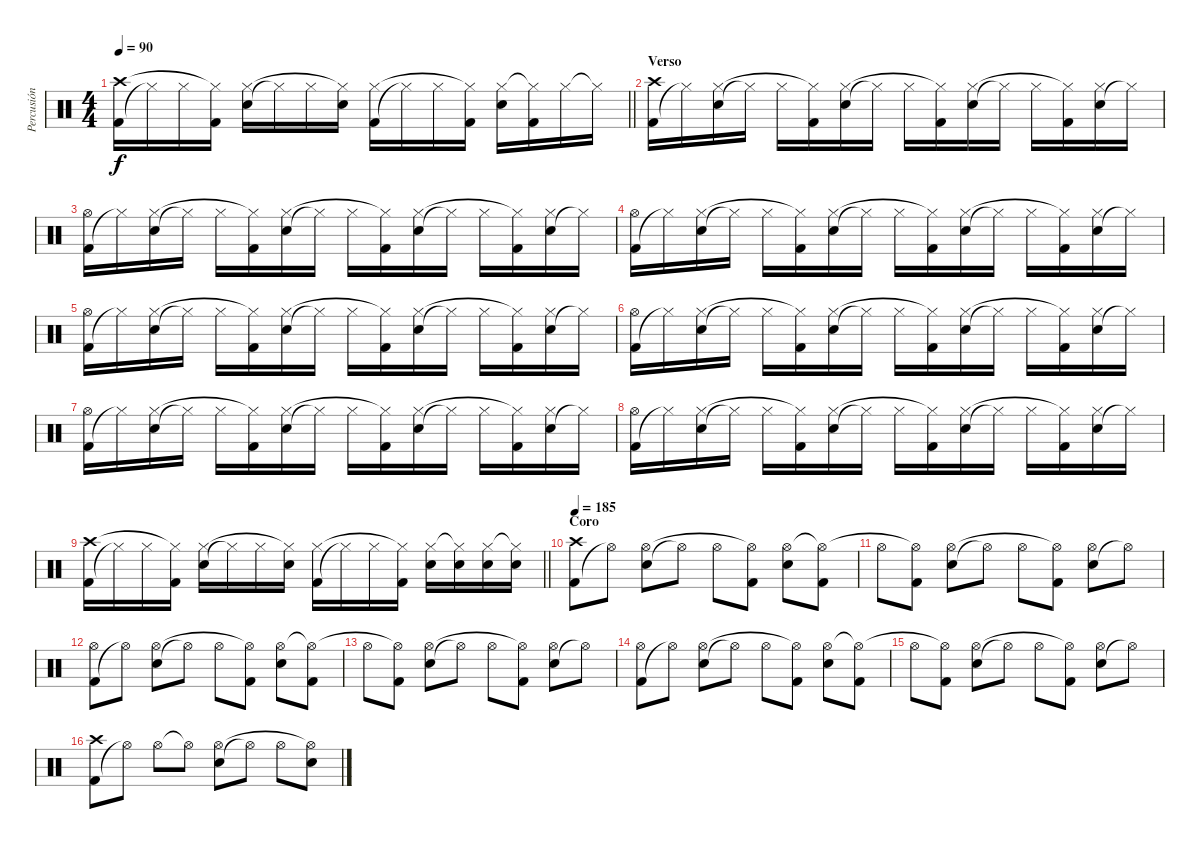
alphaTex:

\track ("Percusión" "Percusión") {instrument percussion}
\staff {score}
\articulation defaults
\ts (4 4)
\tempo 90
\clef neutral
\barLineRight lightlight
\ks c
("Kick (hit) 2" "Crash high (hit)").16{dy f} "Hi-Hat (closed)"{t}.16 "Hi-Hat (closed)".16 ("Kick (hit) 2" "Hi-Hat (closed)"{t}).16 ("Snare (hit) 2" "Hi-Hat (closed)").16 "Hi-Hat (closed)"{t}.16 "Hi-Hat (closed)".16 ("Snare (hit) 2" "Hi-Hat (closed)"{t}).16 ("Kick (hit) 2" "Hi-Hat (closed)").16 "Hi-Hat (closed)"{t}.16 "Hi-Hat (closed)".16 ("Kick (hit) 2" "Hi-Hat (closed)"{t}).16 ("Snare (hit) 2" "Hi-Hat (closed)").16 ("Kick (hit) 2" "Hi-Hat (closed)"{t}).16 "Hi-Hat (closed)".16 "Hi-Hat (closed)"{t}.16 |
\section ("" "Verso")
("Kick (hit) 2" "Crash high (hit)").16 "Hi-Hat (closed)"{t}.16 ("Snare (hit) 2" "Hi-Hat (closed)").16 "Hi-Hat (closed)"{t}.16 "Hi-Hat (closed)".16 ("Kick (hit) 2" "Hi-Hat (closed)"{t}).16 ("Snare (hit) 2" "Hi-Hat (closed)").16 "Hi-Hat (closed)"{t}.16 "Hi-Hat (closed)".16 ("Kick (hit) 2" "Hi-Hat (closed)"{t}).16 ("Snare (hit) 2" "Hi-Hat (closed)").16 "Hi-Hat (closed)"{t}.16 "Hi-Hat (closed)".16 ("Kick (hit) 2" "Hi-Hat (closed)"{t}).16 ("Snare (hit) 2" "Hi-Hat (closed)").16 "Hi-Hat (closed)"{t}.16 |
("Kick (hit) 2" "Hi-Hat (open)").16 "Hi-Hat (closed)"{t}.16 ("Snare (hit) 2" "Hi-Hat (closed)").16 "Hi-Hat (closed)"{t}.16 "Hi-Hat (closed)".16 ("Kick (hit) 2" "Hi-Hat (closed)"{t}).16 ("Snare (hit) 2" "Hi-Hat (closed)").16 "Hi-Hat (closed)"{t}.16 "Hi-Hat (closed)".16 ("Kick (hit) 2" "Hi-Hat (closed)"{t}).16 ("Snare (hit) 2" "Hi-Hat (closed)").16 "Hi-Hat (closed)"{t}.16 "Hi-Hat (closed)".16 ("Kick (hit) 2" "Hi-Hat (closed)"{t}).16 ("Snare (hit) 2" "Hi-Hat (closed)").16 "Hi-Hat (closed)"{t}.16 |
("Kick (hit) 2" "Hi-Hat (open)").16 "Hi-Hat (closed)"{t}.16 ("Snare (hit) 2" "Hi-Hat (closed)").16 "Hi-Hat (closed)"{t}.16 "Hi-Hat (closed)".16 ("Kick (hit) 2" "Hi-Hat (closed)"{t}).16 ("Snare (hit) 2" "Hi-Hat (closed)").16 "Hi-Hat (closed)"{t}.16 "Hi-Hat (closed)".16 ("Kick (hit) 2" "Hi-Hat (closed)"{t}).16 ("Snare (hit) 2" "Hi-Hat (closed)").16 "Hi-Hat (closed)"{t}.16 "Hi-Hat (closed)".16 ("Kick (hit) 2" "Hi-Hat (closed)"{t}).16 ("Snare (hit) 2" "Hi-Hat (closed)").16 "Hi-Hat (closed)"{t}.16 |
("Kick (hit) 2" "Hi-Hat (open)").16 "Hi-Hat (closed)"{t}.16 ("Snare (hit) 2" "Hi-Hat (closed)").16 "Hi-Hat (closed)"{t}.16 "Hi-Hat (closed)".16 ("Kick (hit) 2" "Hi-Hat (closed)"{t}).16 ("Snare (hit) 2" "Hi-Hat (closed)").16 "Hi-Hat (closed)"{t}.16 "Hi-Hat (closed)".16 ("Kick (hit) 2" "Hi-Hat (closed)"{t}).16 ("Snare (hit) 2" "Hi-Hat (closed)").16 "Hi-Hat (closed)"{t}.16 "Hi-Hat (closed)".16 ("Kick (hit) 2" "Hi-Hat (closed)"{t}).16 ("Snare (hit) 2" "Hi-Hat (closed)").16 "Hi-Hat (closed)"{t}.16 |
("Kick (hit) 2" "Hi-Hat (open)").16 "Hi-Hat (closed)"{t}.16 ("Snare (hit) 2" "Hi-Hat (closed)").16 "Hi-Hat (closed)"{t}.16 "Hi-Hat (closed)".16 ("Kick (hit) 2" "Hi-Hat (closed)"{t}).16 ("Snare (hit) 2" "Hi-Hat (closed)").16 "Hi-Hat (closed)"{t}.16 "Hi-Hat (closed)".16 ("Kick (hit) 2" "Hi-Hat (closed)"{t}).16 ("Snare (hit) 2" "Hi-Hat (closed)").16 "Hi-Hat (closed)"{t}.16 "Hi-Hat (closed)".16 ("Kick (hit) 2" "Hi-Hat (closed)"{t}).16 ("Snare (hit) 2" "Hi-Hat (closed)").16 "Hi-Hat (closed)"{t}.16 |
("Kick (hit) 2" "Hi-Hat (open)").16 "Hi-Hat (closed)"{t}.16 ("Snare (hit) 2" "Hi-Hat (closed)").16 "Hi-Hat (closed)"{t}.16 "Hi-Hat (closed)".16 ("Kick (hit) 2" "Hi-Hat (closed)"{t}).16 ("Snare (hit) 2" "Hi-Hat (closed)").16 "Hi-Hat (closed)"{t}.16 "Hi-Hat (closed)".16 ("Kick (hit) 2" "Hi-Hat (closed)"{t}).16 ("Snare (hit) 2" "Hi-Hat (closed)").16 "Hi-Hat (closed)"{t}.16 "Hi-Hat (closed)".16 ("Kick (hit) 2" "Hi-Hat (closed)"{t}).16 ("Snare (hit) 2" "Hi-Hat (closed)").16 "Hi-Hat (closed)"{t}.16 |
("Kick (hit) 2" "Hi-Hat (open)").16 "Hi-Hat (closed)"{t}.16 ("Snare (hit) 2" "Hi-Hat (closed)").16 "Hi-Hat (closed)"{t}.16 "Hi-Hat (closed)".16 ("Kick (hit) 2" "Hi-Hat (closed)"{t}).16 ("Snare (hit) 2" "Hi-Hat (closed)").16 "Hi-Hat (closed)"{t}.16 "Hi-Hat (closed)".16 ("Kick (hit) 2" "Hi-Hat (closed)"{t}).16 ("Snare (hit) 2" "Hi-Hat (closed)").16 "Hi-Hat (closed)"{t}.16 "Hi-Hat (closed)".16 ("Kick (hit) 2" "Hi-Hat (closed)"{t}).16 ("Snare (hit) 2" "Hi-Hat (closed)").16 "Hi-Hat (closed)"{t}.16 |
\barLineRight lightlight
("Kick (hit) 2" "Crash high (hit)").16 "Hi-Hat (closed)"{t}.16 "Hi-Hat (closed)".16 ("Kick (hit) 2" "Hi-Hat (closed)"{t}).16 ("Snare (hit) 2" "Hi-Hat (closed)").16 "Hi-Hat (closed)"{t}.16 "Hi-Hat (closed)".16 ("Snare (hit) 2" "Hi-Hat (closed)"{t}).16 ("Kick (hit) 2" "Hi-Hat (closed)").16 "Hi-Hat (closed)"{t}.16 "Hi-Hat (closed)".16 ("Kick (hit) 2" "Hi-Hat (closed)"{t}).16 ("Snare (hit) 2" "Hi-Hat (closed)").16 ("Snare (hit) 2" "Hi-Hat (closed)"{t}).16 ("Snare (hit) 2" "Hi-Hat (closed)").16 ("Snare (hit) 2" "Hi-Hat (closed)"{t}).16 |
\section ("" "Coro")
\tempo 185
("Kick (hit) 2" "Crash high (hit)").8 "Hi-Hat (open)"{t}.8 ("Snare (hit) 2" "Hi-Hat (open)").8 "Hi-Hat (open)"{t}.8 "Hi-Hat (open)".8 ("Kick (hit) 2" "Hi-Hat (open)"{t}).8 ("Snare (hit) 2" "Hi-Hat (open)").8 ("Kick (hit) 2" "Hi-Hat (open)"{t}).8 |
"Hi-Hat (open)".8 ("Kick (hit) 2" "Hi-Hat (open)"{t}).8 ("Snare (hit) 2" "Hi-Hat (open)").8 "Hi-Hat (open)"{t}.8 "Hi-Hat (open)".8 ("Kick (hit) 2" "Hi-Hat (open)"{t}).8 ("Snare (hit) 2" "Hi-Hat (open)").8 "Hi-Hat (open)"{t}.8 |
("Kick (hit) 2" "Hi-Hat (open)").8 "Hi-Hat (open)"{t}.8 ("Snare (hit) 2" "Hi-Hat (open)").8 "Hi-Hat (open)"{t}.8 "Hi-Hat (open)".8 ("Kick (hit) 2" "Hi-Hat (open)"{t}).8 ("Snare (hit) 2" "Hi-Hat (open)").8 ("Kick (hit) 2" "Hi-Hat (open)"{t}).8 |
"Hi-Hat (open)".8 ("Kick (hit) 2" "Hi-Hat (open)"{t}).8 ("Snare (hit) 2" "Hi-Hat (open)").8 "Hi-Hat (open)"{t}.8 "Hi-Hat (open)".8 ("Kick (hit) 2" "Hi-Hat (open)"{t}).8 ("Snare (hit) 2" "Hi-Hat (open)").8 "Hi-Hat (open)"{t}.8 |
("Kick (hit) 2" "Hi-Hat (open)").8 "Hi-Hat (open)"{t}.8 ("Snare (hit) 2" "Hi-Hat (open)").8 "Hi-Hat (open)"{t}.8 "Hi-Hat (open)".8 ("Kick (hit) 2" "Hi-Hat (open)"{t}).8 ("Snare (hit) 2" "Hi-Hat (open)").8 ("Kick (hit) 2" "Hi-Hat (open)"{t}).8 |
"Hi-Hat (open)".8 ("Kick (hit) 2" "Hi-Hat (open)"{t}).8 ("Snare (hit) 2" "Hi-Hat (open)").8 "Hi-Hat (open)"{t}.8 "Hi-Hat (open)".8 ("Kick (hit) 2" "Hi-Hat (open)"{t}).8 ("Snare (hit) 2" "Hi-Hat (open)").8 "Hi-Hat (open)"{t}.8 |
("Kick (hit) 2" "Crash high (hit)").8 "Hi-Hat (open)"{t}.8 "Hi-Hat (open)".8 "Hi-Hat (open)"{t}.8 ("Snare (hit) 2" "Hi-Hat (open)").8 "Hi-Hat (open)"{t}.8 "Hi-Hat (open)".8 ("Snare (hit) 2" "Hi-Hat (open)"{t}).8
